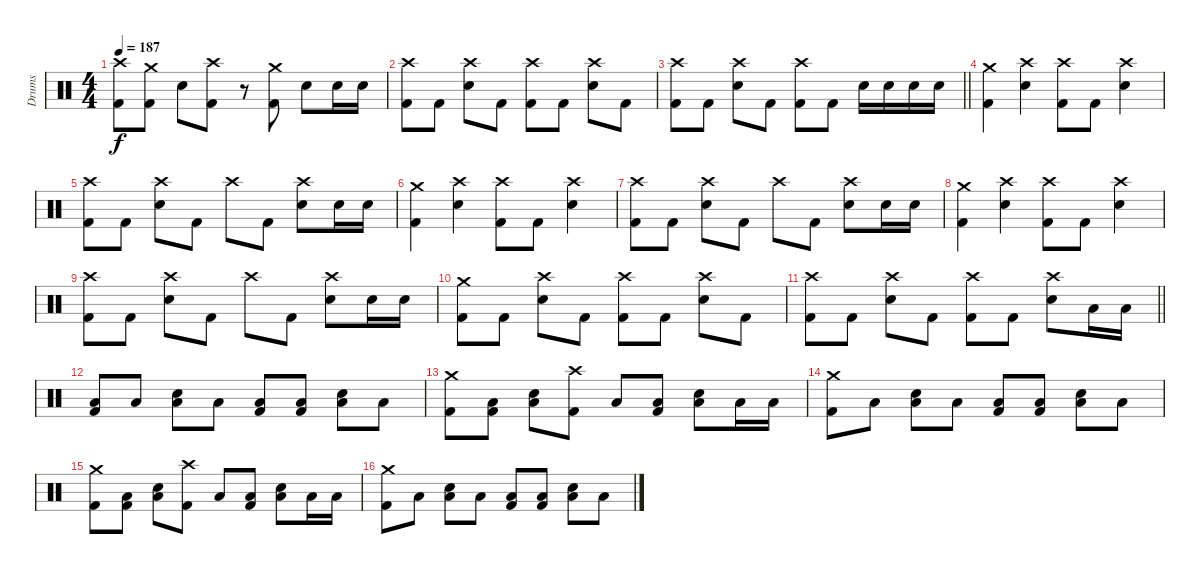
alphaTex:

\track ("Drums" "Drums") {instrument percussion}
\staff {score}
\articulation defaults
\ts (4 4)
\tempo 187
\clef neutral
\ks c
("Crash high (hit)" "Kick (hit) 2").8{dy f} ("Crash medium (hit)" "Kick (hit) 2").8 "Electric Snare (hit)".8 ("Crash high (hit)" "Kick (hit) 2").8 r.8 ("Crash medium (hit)" "Kick (hit) 2").8 "Electric Snare (hit)".8 "Electric Snare (hit)".16 "Electric Snare (hit)".16 |
("Crash high (hit)" "Kick (hit) 2").8 "Kick (hit) 2".8 ("Crash high (hit)" "Electric Snare (hit)").8 "Kick (hit) 2".8 ("Crash high (hit)" "Kick (hit) 2").8 "Kick (hit) 2".8 ("Crash high (hit)" "Electric Snare (hit)").8 "Kick (hit) 2".8 |
\barLineRight lightlight
("Crash high (hit)" "Kick (hit) 2").8 "Kick (hit) 2".8 ("Crash high (hit)" "Electric Snare (hit)").8 "Kick (hit) 2".8 ("Crash high (hit)" "Kick (hit) 2").8 "Kick (hit) 2".8 "Electric Snare (hit)".16 "Electric Snare (hit)".16 "Electric Snare (hit)".16 "Electric Snare (hit)".16 |
("Crash medium (hit)" "Kick (hit) 2").4 ("Crash high (hit)" "Electric Snare (hit)").4 ("Crash high (hit)" "Kick (hit) 2").8 "Kick (hit) 2".8 ("Crash high (hit)" "Electric Snare (hit)").4 |
("Crash high (hit)" "Kick (hit) 2").8 "Kick (hit) 2".8 ("Crash high (hit)" "Electric Snare (hit)").8 "Kick (hit) 2".8 "Crash high (hit)".8 "Kick (hit) 2".8 ("Crash high (hit)" "Electric Snare (hit)").8 "Electric Snare (hit)".16 "Electric Snare (hit)".16 |
("Crash medium (hit)" "Kick (hit) 2").4 ("Crash high (hit)" "Electric Snare (hit)").4 ("Crash high (hit)" "Kick (hit) 2").8 "Kick (hit) 2".8 ("Crash high (hit)" "Electric Snare (hit)").4 |
("Crash high (hit)" "Kick (hit) 2").8 "Kick (hit) 2".8 ("Crash high (hit)" "Electric Snare (hit)").8 "Kick (hit) 2".8 "Crash high (hit)".8 "Kick (hit) 2".8 ("Crash high (hit)" "Electric Snare (hit)").8 "Electric Snare (hit)".16 "Electric Snare (hit)".16 |
("Crash medium (hit)" "Kick (hit) 2").4 ("Crash high (hit)" "Electric Snare (hit)").4 ("Crash high (hit)" "Kick (hit) 2").8 "Kick (hit) 2".8 ("Crash high (hit)" "Electric Snare (hit)").4 |
("Crash high (hit)" "Kick (hit) 2").8 "Kick (hit) 2".8 ("Crash high (hit)" "Electric Snare (hit)").8 "Kick (hit) 2".8 "Crash high (hit)".8 "Kick (hit) 2".8 ("Crash high (hit)" "Electric Snare (hit)").8 "Electric Snare (hit)".16 "Electric Snare (hit)".16 |
("Crash medium (hit)" "Kick (hit) 2").8 "Kick (hit) 2".8 ("Crash high (hit)" "Electric Snare (hit)").8 "Kick (hit) 2".8 ("Crash high (hit)" "Kick (hit) 2").8 "Kick (hit) 2".8 ("Crash high (hit)" "Electric Snare (hit)").8 "Kick (hit) 2".8 |
\barLineRight lightlight
("Crash high (hit)" "Kick (hit) 2").8 "Kick (hit) 2".8 ("Crash high (hit)" "Electric Snare (hit)").8 "Kick (hit) 2".8 ("Crash high (hit)" "Kick (hit) 2").8 "Kick (hit) 2".8 ("Crash high (hit)" "Electric Snare (hit)").8 "Low Floor Tom (hit)".16 "Low Floor Tom (hit)".16 |
("Low Floor Tom (hit)" "Kick (hit) 2").8 "Low Floor Tom (hit)".8 ("Electric Snare (hit)" "Low Floor Tom (hit)").8 "Low Floor Tom (hit)".8 ("Low Floor Tom (hit)" "Kick (hit) 2").8 ("Low Floor Tom (hit)" "Kick (hit) 2").8 ("Electric Snare (hit)" "Low Floor Tom (hit)").8 "Low Floor Tom (hit)".8 |
("Crash medium (hit)" "Kick (hit) 2").8 ("Low Floor Tom (hit)" "Kick (hit) 2").8 ("Electric Snare (hit)" "Low Floor Tom (hit)").8 ("Crash high (hit)" "Kick (hit) 2").8 "Low Floor Tom (hit)".8 ("Low Floor Tom (hit)" "Kick (hit) 2").8 ("Electric Snare (hit)" "Low Floor Tom (hit)").8 "Low Floor Tom (hit)".16 "Low Floor Tom (hit)".16 |
("Crash medium (hit)" "Kick (hit) 2").8 "Low Floor Tom (hit)".8 ("Electric Snare (hit)" "Low Floor Tom (hit)").8 "Low Floor Tom (hit)".8 ("Low Floor Tom (hit)" "Kick (hit) 2").8 ("Low Floor Tom (hit)" "Kick (hit) 2").8 ("Electric Snare (hit)" "Low Floor Tom (hit)").8 "Low Floor Tom (hit)".8 |
("Crash medium (hit)" "Kick (hit) 2").8 ("Low Floor Tom (hit)" "Kick (hit) 2").8 ("Electric Snare (hit)" "Low Floor Tom (hit)").8 ("Crash high (hit)" "Kick (hit) 2").8 "Low Floor Tom (hit)".8 ("Low Floor Tom (hit)" "Kick (hit) 2").8 ("Electric Snare (hit)" "Low Floor Tom (hit)").8 "Low Floor Tom (hit)".16 "Low Floor Tom (hit)".16 |
("Crash medium (hit)" "Kick (hit) 2").8 "Low Floor Tom (hit)".8 ("Electric Snare (hit)" "Low Floor Tom (hit)").8 "Low Floor Tom (hit)".8 ("Low Floor Tom (hit)" "Kick (hit) 2").8 ("Low Floor Tom (hit)" "Kick (hit) 2").8 ("Electric Snare (hit)" "Low Floor Tom (hit)").8 "Low Floor Tom (hit)".8
